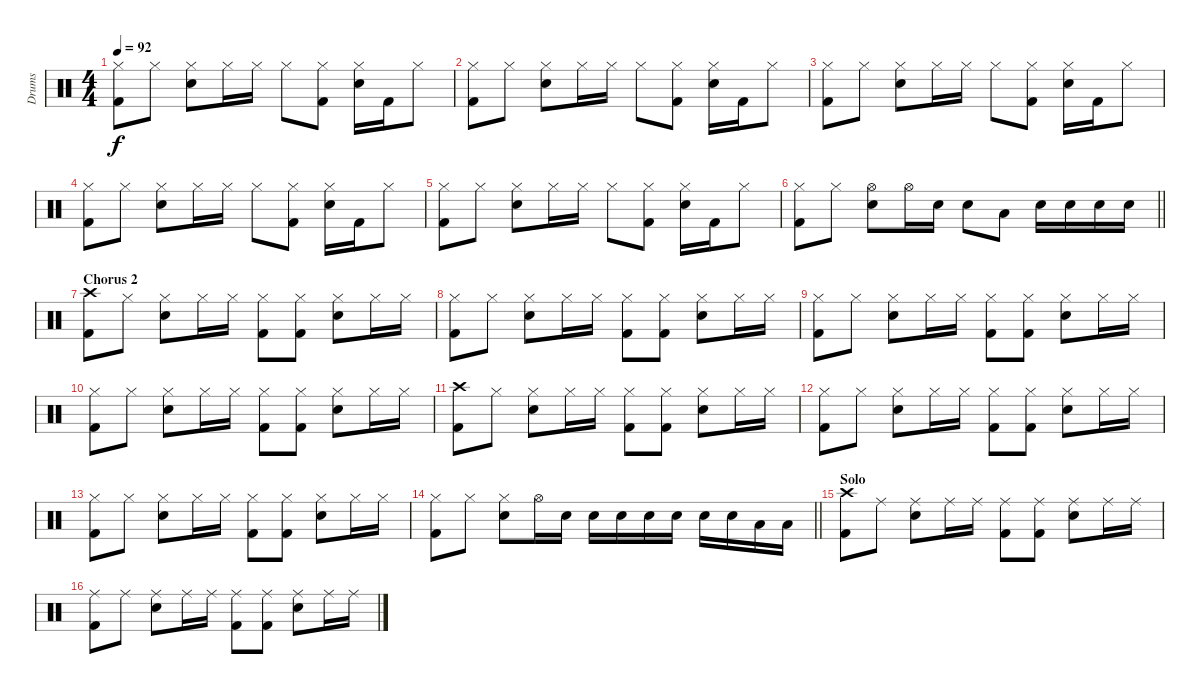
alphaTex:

\track ("Drums" "Drums") {instrument percussion}
\staff {score}
\articulation defaults
\ts (4 4)
\tempo 92
\clef neutral
\ks c
("Hi-Hat (closed)" "Kick (hit) 2").8{dy f} "Hi-Hat (closed)".8 ("Hi-Hat (closed)" "Snare (hit) 2").8 "Hi-Hat (closed)".16 "Hi-Hat (closed)".16 "Hi-Hat (closed)".8 ("Hi-Hat (closed)" "Kick (hit) 2").8 ("Hi-Hat (closed)" "Snare (hit) 2").16 "Kick (hit) 2".16 "Hi-Hat (closed)".8 |
("Hi-Hat (closed)" "Kick (hit) 2").8 "Hi-Hat (closed)".8 ("Hi-Hat (closed)" "Snare (hit) 2").8 "Hi-Hat (closed)".16 "Hi-Hat (closed)".16 "Hi-Hat (closed)".8 ("Hi-Hat (closed)" "Kick (hit) 2").8 ("Hi-Hat (closed)" "Snare (hit) 2").16 "Kick (hit) 2".16 "Hi-Hat (closed)".8 |
("Hi-Hat (closed)" "Kick (hit) 2").8 "Hi-Hat (closed)".8 ("Hi-Hat (closed)" "Snare (hit) 2").8 "Hi-Hat (closed)".16 "Hi-Hat (closed)".16 "Hi-Hat (closed)".8 ("Hi-Hat (closed)" "Kick (hit) 2").8 ("Hi-Hat (closed)" "Snare (hit) 2").16 "Kick (hit) 2".16 "Hi-Hat (closed)".8 |
("Hi-Hat (closed)" "Kick (hit) 2").8 "Hi-Hat (closed)".8 ("Hi-Hat (closed)" "Snare (hit) 2").8 "Hi-Hat (closed)".16 "Hi-Hat (closed)".16 "Hi-Hat (closed)".8 ("Hi-Hat (closed)" "Kick (hit) 2").8 ("Hi-Hat (closed)" "Snare (hit) 2").16 "Kick (hit) 2".16 "Hi-Hat (closed)".8 |
("Hi-Hat (closed)" "Kick (hit) 2").8 "Hi-Hat (closed)".8 ("Hi-Hat (closed)" "Snare (hit) 2").8 "Hi-Hat (closed)".16 "Hi-Hat (closed)".16 "Hi-Hat (closed)".8 ("Hi-Hat (closed)" "Kick (hit) 2").8 ("Hi-Hat (closed)" "Snare (hit) 2").16 "Kick (hit) 2".16 "Hi-Hat (closed)".8 |
\barLineRight lightlight
("Hi-Hat (closed)" "Kick (hit) 2").8 "Hi-Hat (closed)".8 ("Hi-Hat (open)" "Snare (hit) 2").8 "Hi-Hat (open)".16 "Snare (hit) 2".16 "Snare (hit) 2".8 "Low Tom (hit)".8 "Snare (hit) 2".16 "Snare (hit) 2".16 "Snare (hit) 2".16 "Snare (hit) 2".16 |
\section ("" "Chorus 2")
("Crash high (hit)" "Kick (hit) 2").8 "Hi-Hat (closed)".8 ("Hi-Hat (closed)" "Snare (hit) 2").8 "Hi-Hat (closed)".16 "Hi-Hat (closed)".16 ("Hi-Hat (closed)" "Kick (hit) 2").8 ("Hi-Hat (closed)" "Kick (hit) 2").8 ("Hi-Hat (closed)" "Snare (hit) 2").8 "Hi-Hat (closed)".16 "Hi-Hat (closed)".16 |
("Hi-Hat (closed)" "Kick (hit) 2").8 "Hi-Hat (closed)".8 ("Hi-Hat (closed)" "Snare (hit) 2").8 "Hi-Hat (closed)".16 "Hi-Hat (closed)".16 ("Hi-Hat (closed)" "Kick (hit) 2").8 ("Hi-Hat (closed)" "Kick (hit) 2").8 ("Hi-Hat (closed)" "Snare (hit) 2").8 "Hi-Hat (closed)".16 "Hi-Hat (closed)".16 |
("Hi-Hat (closed)" "Kick (hit) 2").8 "Hi-Hat (closed)".8 ("Hi-Hat (closed)" "Snare (hit) 2").8 "Hi-Hat (closed)".16 "Hi-Hat (closed)".16 ("Hi-Hat (closed)" "Kick (hit) 2").8 ("Hi-Hat (closed)" "Kick (hit) 2").8 ("Hi-Hat (closed)" "Snare (hit) 2").8 "Hi-Hat (closed)".16 "Hi-Hat (closed)".16 |
("Hi-Hat (closed)" "Kick (hit) 2").8 "Hi-Hat (closed)".8 ("Hi-Hat (closed)" "Snare (hit) 2").8 "Hi-Hat (closed)".16 "Hi-Hat (closed)".16 ("Hi-Hat (closed)" "Kick (hit) 2").8 ("Hi-Hat (closed)" "Kick (hit) 2").8 ("Hi-Hat (closed)" "Snare (hit) 2").8 "Hi-Hat (closed)".16 "Hi-Hat (closed)".16 |
("Crash high (hit)" "Kick (hit) 2").8 "Hi-Hat (closed)".8 ("Hi-Hat (closed)" "Snare (hit) 2").8 "Hi-Hat (closed)".16 "Hi-Hat (closed)".16 ("Hi-Hat (closed)" "Kick (hit) 2").8 ("Hi-Hat (closed)" "Kick (hit) 2").8 ("Hi-Hat (closed)" "Snare (hit) 2").8 "Hi-Hat (closed)".16 "Hi-Hat (closed)".16 |
("Hi-Hat (closed)" "Kick (hit) 2").8 "Hi-Hat (closed)".8 ("Hi-Hat (closed)" "Snare (hit) 2").8 "Hi-Hat (closed)".16 "Hi-Hat (closed)".16 ("Hi-Hat (closed)" "Kick (hit) 2").8 ("Hi-Hat (closed)" "Kick (hit) 2").8 ("Hi-Hat (closed)" "Snare (hit) 2").8 "Hi-Hat (closed)".16 "Hi-Hat (closed)".16 |
("Hi-Hat (closed)" "Kick (hit) 2").8 "Hi-Hat (closed)".8 ("Hi-Hat (closed)" "Snare (hit) 2").8 "Hi-Hat (closed)".16 "Hi-Hat (closed)".16 ("Hi-Hat (closed)" "Kick (hit) 2").8 ("Hi-Hat (closed)" "Kick (hit) 2").8 ("Hi-Hat (closed)" "Snare (hit) 2").8 "Hi-Hat (closed)".16 "Hi-Hat (closed)".16 |
\barLineRight lightlight
("Hi-Hat (closed)" "Kick (hit) 2").8 "Hi-Hat (closed)".8 ("Hi-Hat (closed)" "Snare (hit) 2").8 "Hi-Hat (open)".16 "Snare (hit) 2".16 "Snare (hit) 2".16 "Snare (hit) 2".16 "Snare (hit) 2".16 "Snare (hit) 2".16 "Snare (hit) 2".16 "Snare (hit) 2".16 "Low Tom (hit)".16 "Low Tom (hit)".16 |
\section ("" "Solo")
("Crash high (hit)" "Kick (hit) 2").8 "Ride (middle)".8 ("Ride (middle)" "Snare (hit) 2").8 "Ride (middle)".16 "Ride (middle)".16 ("Ride (middle)" "Kick (hit) 2").8 ("Ride (middle)" "Kick (hit) 2").8 ("Ride (middle)" "Snare (hit) 2").8 "Ride (middle)".16 "Ride (middle)".16 |
("Ride (middle)" "Kick (hit) 2").8 "Ride (middle)".8 ("Ride (middle)" "Snare (hit) 2").8 "Ride (middle)".16 "Ride (middle)".16 ("Ride (middle)" "Kick (hit) 2").8 ("Ride (middle)" "Kick (hit) 2").8 ("Ride (middle)" "Snare (hit) 2").8 "Ride (middle)".16 "Ride (middle)".16
